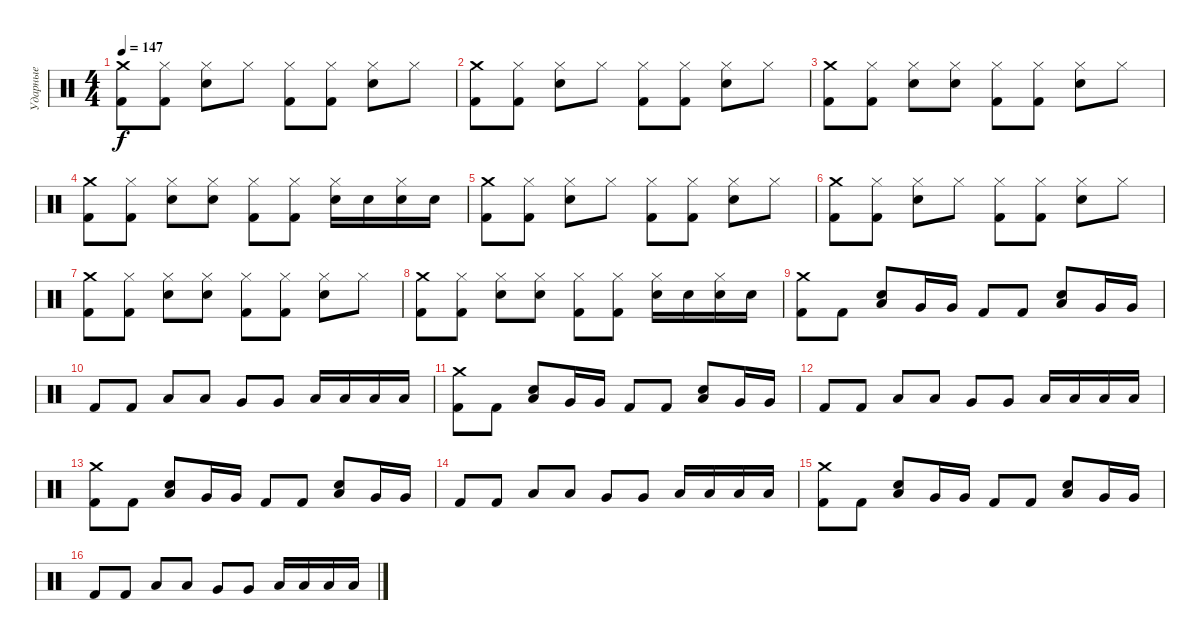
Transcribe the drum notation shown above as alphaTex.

\track ("Ударные" "Ударные") {instrument percussion}
\staff {score}
\articulation defaults
\ts (4 4)
\tempo 147
\clef neutral
\ks c
("Crash medium (hit)" "Kick (hit) 2").8{dy f} ("Hi-Hat (closed)" "Kick (hit) 2").8 ("Hi-Hat (closed)" "Electric Snare (hit)").8 "Hi-Hat (closed)".8 ("Hi-Hat (closed)" "Kick (hit) 2").8 ("Hi-Hat (closed)" "Kick (hit) 2").8 ("Hi-Hat (closed)" "Electric Snare (hit)").8 "Hi-Hat (closed)".8 |
("Crash medium (hit)" "Kick (hit) 2").8 ("Hi-Hat (closed)" "Kick (hit) 2").8 ("Hi-Hat (closed)" "Electric Snare (hit)").8 "Hi-Hat (closed)".8 ("Hi-Hat (closed)" "Kick (hit) 2").8 ("Hi-Hat (closed)" "Kick (hit) 2").8 ("Hi-Hat (closed)" "Electric Snare (hit)").8 "Hi-Hat (closed)".8 |
("Crash medium (hit)" "Kick (hit) 2").8 ("Hi-Hat (closed)" "Kick (hit) 2").8 ("Hi-Hat (closed)" "Electric Snare (hit)").8 ("Hi-Hat (closed)" "Electric Snare (hit)").8 ("Hi-Hat (closed)" "Kick (hit) 2").8 ("Hi-Hat (closed)" "Kick (hit) 2").8 ("Hi-Hat (closed)" "Electric Snare (hit)").8 "Hi-Hat (closed)".8 |
("Crash medium (hit)" "Kick (hit) 2").8 ("Hi-Hat (closed)" "Kick (hit) 2").8 ("Hi-Hat (closed)" "Electric Snare (hit)").8 ("Hi-Hat (closed)" "Electric Snare (hit)").8 ("Hi-Hat (closed)" "Kick (hit) 2").8 ("Hi-Hat (closed)" "Kick (hit) 2").8 ("Hi-Hat (closed)" "Electric Snare (hit)").16 "Electric Snare (hit)".16 ("Hi-Hat (closed)" "Electric Snare (hit)").16 "Electric Snare (hit)".16 |
("Crash medium (hit)" "Kick (hit) 2").8 ("Hi-Hat (closed)" "Kick (hit) 2").8 ("Hi-Hat (closed)" "Electric Snare (hit)").8 "Hi-Hat (closed)".8 ("Hi-Hat (closed)" "Kick (hit) 2").8 ("Hi-Hat (closed)" "Kick (hit) 2").8 ("Hi-Hat (closed)" "Electric Snare (hit)").8 "Hi-Hat (closed)".8 |
("Crash medium (hit)" "Kick (hit) 2").8 ("Hi-Hat (closed)" "Kick (hit) 2").8 ("Hi-Hat (closed)" "Electric Snare (hit)").8 "Hi-Hat (closed)".8 ("Hi-Hat (closed)" "Kick (hit) 2").8 ("Hi-Hat (closed)" "Kick (hit) 2").8 ("Hi-Hat (closed)" "Electric Snare (hit)").8 "Hi-Hat (closed)".8 |
("Crash medium (hit)" "Kick (hit) 2").8 ("Hi-Hat (closed)" "Kick (hit) 2").8 ("Hi-Hat (closed)" "Electric Snare (hit)").8 ("Hi-Hat (closed)" "Electric Snare (hit)").8 ("Hi-Hat (closed)" "Kick (hit) 2").8 ("Hi-Hat (closed)" "Kick (hit) 2").8 ("Hi-Hat (closed)" "Electric Snare (hit)").8 "Hi-Hat (closed)".8 |
("Crash medium (hit)" "Kick (hit) 2").8 ("Hi-Hat (closed)" "Kick (hit) 2").8 ("Hi-Hat (closed)" "Electric Snare (hit)").8 ("Hi-Hat (closed)" "Electric Snare (hit)").8 ("Hi-Hat (closed)" "Kick (hit) 2").8 ("Hi-Hat (closed)" "Kick (hit) 2").8 ("Hi-Hat (closed)" "Electric Snare (hit)").16 "Electric Snare (hit)".16 ("Hi-Hat (closed)" "Electric Snare (hit)").16 "Electric Snare (hit)".16 |
("Crash medium (hit)" "Kick (hit) 2").8 "Kick (hit) 2".8 ("Electric Snare (hit)" "Low Tom (hit)").8 "Very Low Tom (hit)".16 "Very Low Tom (hit)".16 "Kick (hit) 2".8 "Kick (hit) 2".8 ("Electric Snare (hit)" "Low Tom (hit)").8 "Very Low Tom (hit)".16 "Very Low Tom (hit)".16 |
"Kick (hit) 2".8 "Kick (hit) 2".8 "Low Tom (hit)".8 "Low Tom (hit)".8 "Very Low Tom (hit)".8 "Very Low Tom (hit)".8 "Low Floor Tom (hit)".16 "Low Floor Tom (hit)".16 "Low Floor Tom (hit)".16 "Low Floor Tom (hit)".16 |
("Crash medium (hit)" "Kick (hit) 2").8 "Kick (hit) 2".8 ("Electric Snare (hit)" "Low Tom (hit)").8 "Very Low Tom (hit)".16 "Very Low Tom (hit)".16 "Kick (hit) 2".8 "Kick (hit) 2".8 ("Electric Snare (hit)" "Low Tom (hit)").8 "Very Low Tom (hit)".16 "Very Low Tom (hit)".16 |
"Kick (hit) 2".8 "Kick (hit) 2".8 "Low Tom (hit)".8 "Low Tom (hit)".8 "Very Low Tom (hit)".8 "Very Low Tom (hit)".8 "Low Floor Tom (hit)".16 "Low Floor Tom (hit)".16 "Low Floor Tom (hit)".16 "Low Floor Tom (hit)".16 |
("Crash medium (hit)" "Kick (hit) 2").8 "Kick (hit) 2".8 ("Electric Snare (hit)" "Low Tom (hit)").8 "Very Low Tom (hit)".16 "Very Low Tom (hit)".16 "Kick (hit) 2".8 "Kick (hit) 2".8 ("Electric Snare (hit)" "Low Tom (hit)").8 "Very Low Tom (hit)".16 "Very Low Tom (hit)".16 |
"Kick (hit) 2".8 "Kick (hit) 2".8 "Low Tom (hit)".8 "Low Tom (hit)".8 "Very Low Tom (hit)".8 "Very Low Tom (hit)".8 "Low Floor Tom (hit)".16 "Low Floor Tom (hit)".16 "Low Floor Tom (hit)".16 "Low Floor Tom (hit)".16 |
("Crash medium (hit)" "Kick (hit) 2").8 "Kick (hit) 2".8 ("Electric Snare (hit)" "Low Tom (hit)").8 "Very Low Tom (hit)".16 "Very Low Tom (hit)".16 "Kick (hit) 2".8 "Kick (hit) 2".8 ("Electric Snare (hit)" "Low Tom (hit)").8 "Very Low Tom (hit)".16 "Very Low Tom (hit)".16 |
"Kick (hit) 2".8 "Kick (hit) 2".8 "Low Tom (hit)".8 "Low Tom (hit)".8 "Very Low Tom (hit)".8 "Very Low Tom (hit)".8 "Low Floor Tom (hit)".16 "Low Floor Tom (hit)".16 "Low Floor Tom (hit)".16 "Low Floor Tom (hit)".16
